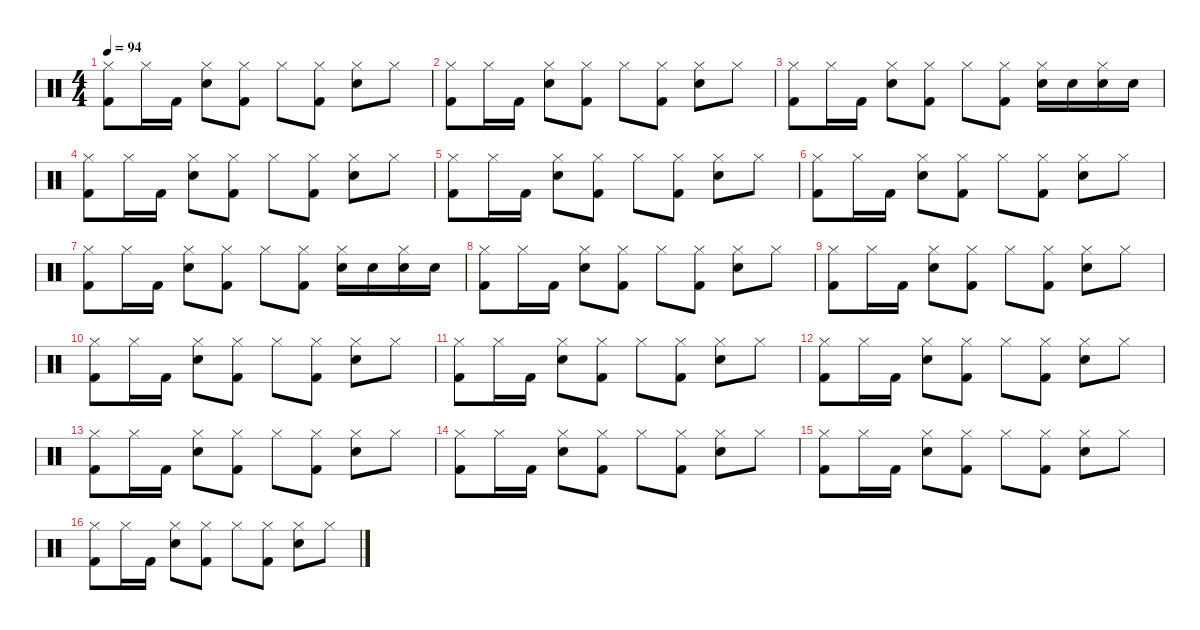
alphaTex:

\defaultSystemsLayout 4
\hideDynamics
\bracketExtendMode nobrackets
\singleTrackTrackNamePolicy hidden
\multiTrackTrackNamePolicy hidden
\otherSystemsTrackNameOrientation horizontal
\track ("Mike Joyce" "drm.") {instrument percussion}
\staff {score}
\articulation defaults
\ts (4 4)
\tempo 94
\clef neutral
\ks c
("Hi-Hat (closed)" "Kick (hit) 2").8{dy f beam Down} "Hi-Hat (closed)".16{beam Down} "Kick (hit) 2".16{beam Down} ("Hi-Hat (closed)" "Snare (hit) 2").8{beam Down} ("Hi-Hat (closed)" "Kick (hit) 2").8{beam Down} "Hi-Hat (closed)".8{beam Down} ("Hi-Hat (closed)" "Kick (hit) 2").8{beam Down} ("Hi-Hat (closed)" "Snare (hit) 2").8{beam Down} "Hi-Hat (closed)".8{beam Down} |
("Hi-Hat (closed)" "Kick (hit) 2").8{beam Down} "Hi-Hat (closed)".16{beam Down} "Kick (hit) 2".16{beam Down} ("Hi-Hat (closed)" "Snare (hit) 2").8{beam Down} ("Hi-Hat (closed)" "Kick (hit) 2").8{beam Down} "Hi-Hat (closed)".8{beam Down} ("Hi-Hat (closed)" "Kick (hit) 2").8{beam Down} ("Hi-Hat (closed)" "Snare (hit) 2").8{beam Down} "Hi-Hat (closed)".8{beam Down} |
("Hi-Hat (closed)" "Kick (hit) 2").8{beam Down} "Hi-Hat (closed)".16{beam Down} "Kick (hit) 2".16{beam Down} ("Hi-Hat (closed)" "Snare (hit) 2").8{beam Down} ("Hi-Hat (closed)" "Kick (hit) 2").8{beam Down} "Hi-Hat (closed)".8{beam Down} ("Hi-Hat (closed)" "Kick (hit) 2").8{beam Down} ("Hi-Hat (closed)" "Snare (hit) 2").16{beam Down} "Snare (hit) 2".16{beam Down} ("Hi-Hat (closed)" "Snare (hit) 2").16{beam Down} "Snare (hit) 2".16{beam Down} |
("Hi-Hat (closed)" "Kick (hit) 2").8{beam Down} "Hi-Hat (closed)".16{beam Down} "Kick (hit) 2".16{beam Down} ("Hi-Hat (closed)" "Snare (hit) 2").8{beam Down} ("Hi-Hat (closed)" "Kick (hit) 2").8{beam Down} "Hi-Hat (closed)".8{beam Down} ("Hi-Hat (closed)" "Kick (hit) 2").8{beam Down} ("Hi-Hat (closed)" "Snare (hit) 2").8{beam Down} "Hi-Hat (closed)".8{beam Down} |
("Hi-Hat (closed)" "Kick (hit) 2").8{beam Down} "Hi-Hat (closed)".16{beam Down} "Kick (hit) 2".16{beam Down} ("Hi-Hat (closed)" "Snare (hit) 2").8{beam Down} ("Hi-Hat (closed)" "Kick (hit) 2").8{beam Down} "Hi-Hat (closed)".8{beam Down} ("Hi-Hat (closed)" "Kick (hit) 2").8{beam Down} ("Hi-Hat (closed)" "Snare (hit) 2").8{beam Down} "Hi-Hat (closed)".8{beam Down} |
("Hi-Hat (closed)" "Kick (hit) 2").8{beam Down} "Hi-Hat (closed)".16{beam Down} "Kick (hit) 2".16{beam Down} ("Hi-Hat (closed)" "Snare (hit) 2").8{beam Down} ("Hi-Hat (closed)" "Kick (hit) 2").8{beam Down} "Hi-Hat (closed)".8{beam Down} ("Hi-Hat (closed)" "Kick (hit) 2").8{beam Down} ("Hi-Hat (closed)" "Snare (hit) 2").8{beam Down} "Hi-Hat (closed)".8{beam Down} |
("Hi-Hat (closed)" "Kick (hit) 2").8 "Hi-Hat (closed)".16 "Kick (hit) 2".16 ("Hi-Hat (closed)" "Snare (hit) 2").8 ("Hi-Hat (closed)" "Kick (hit) 2").8 "Hi-Hat (closed)".8 ("Hi-Hat (closed)" "Kick (hit) 2").8 ("Hi-Hat (closed)" "Snare (hit) 2").16 "Snare (hit) 2".16 ("Hi-Hat (closed)" "Snare (hit) 2").16 "Snare (hit) 2".16 |
("Hi-Hat (closed)" "Kick (hit) 2").8 "Hi-Hat (closed)".16 "Kick (hit) 2".16 ("Hi-Hat (closed)" "Snare (hit) 2").8 ("Hi-Hat (closed)" "Kick (hit) 2").8 "Hi-Hat (closed)".8 ("Hi-Hat (closed)" "Kick (hit) 2").8 ("Hi-Hat (closed)" "Snare (hit) 2").8 "Hi-Hat (closed)".8 |
("Hi-Hat (closed)" "Kick (hit) 2").8 "Hi-Hat (closed)".16 "Kick (hit) 2".16 ("Hi-Hat (closed)" "Snare (hit) 2").8 ("Hi-Hat (closed)" "Kick (hit) 2").8 "Hi-Hat (closed)".8 ("Hi-Hat (closed)" "Kick (hit) 2").8 ("Hi-Hat (closed)" "Snare (hit) 2").8 "Hi-Hat (closed)".8 |
("Hi-Hat (closed)" "Kick (hit) 2").8 "Hi-Hat (closed)".16 "Kick (hit) 2".16 ("Hi-Hat (closed)" "Snare (hit) 2").8 ("Hi-Hat (closed)" "Kick (hit) 2").8 "Hi-Hat (closed)".8 ("Hi-Hat (closed)" "Kick (hit) 2").8 ("Hi-Hat (closed)" "Snare (hit) 2").8 "Hi-Hat (closed)".8 |
("Hi-Hat (closed)" "Kick (hit) 2").8 "Hi-Hat (closed)".16 "Kick (hit) 2".16 ("Hi-Hat (closed)" "Snare (hit) 2").8 ("Hi-Hat (closed)" "Kick (hit) 2").8 "Hi-Hat (closed)".8 ("Hi-Hat (closed)" "Kick (hit) 2").8 ("Hi-Hat (closed)" "Snare (hit) 2").8 "Hi-Hat (closed)".8 |
("Hi-Hat (closed)" "Kick (hit) 2").8 "Hi-Hat (closed)".16 "Kick (hit) 2".16 ("Hi-Hat (closed)" "Snare (hit) 2").8 ("Hi-Hat (closed)" "Kick (hit) 2").8 "Hi-Hat (closed)".8 ("Hi-Hat (closed)" "Kick (hit) 2").8 ("Hi-Hat (closed)" "Snare (hit) 2").8 "Hi-Hat (closed)".8 |
("Hi-Hat (closed)" "Kick (hit) 2").8 "Hi-Hat (closed)".16 "Kick (hit) 2".16 ("Hi-Hat (closed)" "Snare (hit) 2").8 ("Hi-Hat (closed)" "Kick (hit) 2").8 "Hi-Hat (closed)".8 ("Hi-Hat (closed)" "Kick (hit) 2").8 ("Hi-Hat (closed)" "Snare (hit) 2").8 "Hi-Hat (closed)".8 |
("Hi-Hat (closed)" "Kick (hit) 2").8 "Hi-Hat (closed)".16 "Kick (hit) 2".16 ("Hi-Hat (closed)" "Snare (hit) 2").8 ("Hi-Hat (closed)" "Kick (hit) 2").8 "Hi-Hat (closed)".8 ("Hi-Hat (closed)" "Kick (hit) 2").8 ("Hi-Hat (closed)" "Snare (hit) 2").8 "Hi-Hat (closed)".8 |
("Hi-Hat (closed)" "Kick (hit) 2").8 "Hi-Hat (closed)".16 "Kick (hit) 2".16 ("Hi-Hat (closed)" "Snare (hit) 2").8 ("Hi-Hat (closed)" "Kick (hit) 2").8 "Hi-Hat (closed)".8 ("Hi-Hat (closed)" "Kick (hit) 2").8 ("Hi-Hat (closed)" "Snare (hit) 2").8 "Hi-Hat (closed)".8 |
("Hi-Hat (closed)" "Kick (hit) 2").8 "Hi-Hat (closed)".16 "Kick (hit) 2".16 ("Hi-Hat (closed)" "Snare (hit) 2").8 ("Hi-Hat (closed)" "Kick (hit) 2").8 "Hi-Hat (closed)".8 ("Hi-Hat (closed)" "Kick (hit) 2").8 ("Hi-Hat (closed)" "Snare (hit) 2").8 "Hi-Hat (closed)".8
